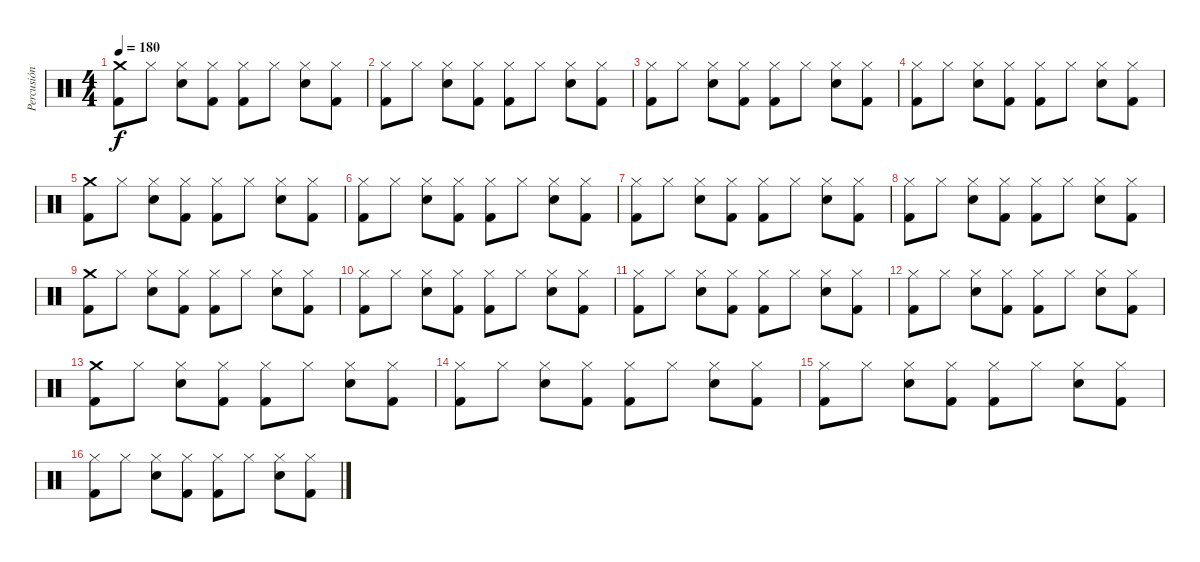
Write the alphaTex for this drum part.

\track ("Percusión" "Percusión") {instrument percussion}
\staff {score}
\articulation defaults
\ts (4 4)
\tempo 180
\clef neutral
\ks c
("Crash medium (hit)" "Kick (hit) 2").8{dy f} "Hi-Hat (closed)".8 ("Hi-Hat (closed)" "Electric Snare (hit)").8 ("Hi-Hat (closed)" "Kick (hit) 2").8 ("Hi-Hat (closed)" "Kick (hit) 2").8 "Hi-Hat (closed)".8 ("Hi-Hat (closed)" "Electric Snare (hit)").8 ("Hi-Hat (closed)" "Kick (hit) 2").8 |
("Hi-Hat (closed)" "Kick (hit) 2").8 "Hi-Hat (closed)".8 ("Hi-Hat (closed)" "Electric Snare (hit)").8 ("Hi-Hat (closed)" "Kick (hit) 2").8 ("Hi-Hat (closed)" "Kick (hit) 2").8 "Hi-Hat (closed)".8 ("Hi-Hat (closed)" "Electric Snare (hit)").8 ("Hi-Hat (closed)" "Kick (hit) 2").8 |
("Hi-Hat (closed)" "Kick (hit) 2").8 "Hi-Hat (closed)".8 ("Hi-Hat (closed)" "Electric Snare (hit)").8 ("Hi-Hat (closed)" "Kick (hit) 2").8 ("Hi-Hat (closed)" "Kick (hit) 2").8 "Hi-Hat (closed)".8 ("Hi-Hat (closed)" "Electric Snare (hit)").8 ("Hi-Hat (closed)" "Kick (hit) 2").8 |
("Hi-Hat (closed)" "Kick (hit) 2").8 "Hi-Hat (closed)".8 ("Hi-Hat (closed)" "Electric Snare (hit)").8 ("Hi-Hat (closed)" "Kick (hit) 2").8 ("Hi-Hat (closed)" "Kick (hit) 2").8 "Hi-Hat (closed)".8 ("Hi-Hat (closed)" "Electric Snare (hit)").8 ("Hi-Hat (closed)" "Kick (hit) 2").8 |
("Crash medium (hit)" "Kick (hit) 2").8 "Hi-Hat (closed)".8 ("Hi-Hat (closed)" "Electric Snare (hit)").8 ("Hi-Hat (closed)" "Kick (hit) 2").8 ("Hi-Hat (closed)" "Kick (hit) 2").8 "Hi-Hat (closed)".8 ("Hi-Hat (closed)" "Electric Snare (hit)").8 ("Hi-Hat (closed)" "Kick (hit) 2").8 |
("Hi-Hat (closed)" "Kick (hit) 2").8 "Hi-Hat (closed)".8 ("Hi-Hat (closed)" "Electric Snare (hit)").8 ("Hi-Hat (closed)" "Kick (hit) 2").8 ("Hi-Hat (closed)" "Kick (hit) 2").8 "Hi-Hat (closed)".8 ("Hi-Hat (closed)" "Electric Snare (hit)").8 ("Hi-Hat (closed)" "Kick (hit) 2").8 |
("Hi-Hat (closed)" "Kick (hit) 2").8 "Hi-Hat (closed)".8 ("Hi-Hat (closed)" "Electric Snare (hit)").8 ("Hi-Hat (closed)" "Kick (hit) 2").8 ("Hi-Hat (closed)" "Kick (hit) 2").8 "Hi-Hat (closed)".8 ("Hi-Hat (closed)" "Electric Snare (hit)").8 ("Hi-Hat (closed)" "Kick (hit) 2").8 |
("Hi-Hat (closed)" "Kick (hit) 2").8 "Hi-Hat (closed)".8 ("Hi-Hat (closed)" "Electric Snare (hit)").8 ("Hi-Hat (closed)" "Kick (hit) 2").8 ("Hi-Hat (closed)" "Kick (hit) 2").8 "Hi-Hat (closed)".8 ("Hi-Hat (closed)" "Electric Snare (hit)").8 ("Hi-Hat (closed)" "Kick (hit) 2").8 |
("Crash medium (hit)" "Kick (hit) 2").8 "Hi-Hat (closed)".8 ("Hi-Hat (closed)" "Electric Snare (hit)").8 ("Hi-Hat (closed)" "Kick (hit) 2").8 ("Hi-Hat (closed)" "Kick (hit) 2").8 "Hi-Hat (closed)".8 ("Hi-Hat (closed)" "Electric Snare (hit)").8 ("Hi-Hat (closed)" "Kick (hit) 2").8 |
("Hi-Hat (closed)" "Kick (hit) 2").8 "Hi-Hat (closed)".8 ("Hi-Hat (closed)" "Electric Snare (hit)").8 ("Hi-Hat (closed)" "Kick (hit) 2").8 ("Hi-Hat (closed)" "Kick (hit) 2").8 "Hi-Hat (closed)".8 ("Hi-Hat (closed)" "Electric Snare (hit)").8 ("Hi-Hat (closed)" "Kick (hit) 2").8 |
("Hi-Hat (closed)" "Kick (hit) 2").8 "Hi-Hat (closed)".8 ("Hi-Hat (closed)" "Electric Snare (hit)").8 ("Hi-Hat (closed)" "Kick (hit) 2").8 ("Hi-Hat (closed)" "Kick (hit) 2").8 "Hi-Hat (closed)".8 ("Hi-Hat (closed)" "Electric Snare (hit)").8 ("Hi-Hat (closed)" "Kick (hit) 2").8 |
("Hi-Hat (closed)" "Kick (hit) 2").8 "Hi-Hat (closed)".8 ("Hi-Hat (closed)" "Electric Snare (hit)").8 ("Hi-Hat (closed)" "Kick (hit) 2").8 ("Hi-Hat (closed)" "Kick (hit) 2").8 "Hi-Hat (closed)".8 ("Hi-Hat (closed)" "Electric Snare (hit)").8 ("Hi-Hat (closed)" "Kick (hit) 2").8 |
("Crash medium (hit)" "Kick (hit) 2").8 "Hi-Hat (closed)".8 ("Hi-Hat (closed)" "Electric Snare (hit)").8 ("Hi-Hat (closed)" "Kick (hit) 2").8 ("Hi-Hat (closed)" "Kick (hit) 2").8 "Hi-Hat (closed)".8 ("Hi-Hat (closed)" "Electric Snare (hit)").8 ("Hi-Hat (closed)" "Kick (hit) 2").8 |
("Hi-Hat (closed)" "Kick (hit) 2").8 "Hi-Hat (closed)".8 ("Hi-Hat (closed)" "Electric Snare (hit)").8 ("Hi-Hat (closed)" "Kick (hit) 2").8 ("Hi-Hat (closed)" "Kick (hit) 2").8 "Hi-Hat (closed)".8 ("Hi-Hat (closed)" "Electric Snare (hit)").8 ("Hi-Hat (closed)" "Kick (hit) 2").8 |
("Hi-Hat (closed)" "Kick (hit) 2").8 "Hi-Hat (closed)".8 ("Hi-Hat (closed)" "Electric Snare (hit)").8 ("Hi-Hat (closed)" "Kick (hit) 2").8 ("Hi-Hat (closed)" "Kick (hit) 2").8 "Hi-Hat (closed)".8 ("Hi-Hat (closed)" "Electric Snare (hit)").8 ("Hi-Hat (closed)" "Kick (hit) 2").8 |
("Hi-Hat (closed)" "Kick (hit) 2").8 "Hi-Hat (closed)".8 ("Hi-Hat (closed)" "Electric Snare (hit)").8 ("Hi-Hat (closed)" "Kick (hit) 2").8 ("Hi-Hat (closed)" "Kick (hit) 2").8 "Hi-Hat (closed)".8 ("Hi-Hat (closed)" "Electric Snare (hit)").8 ("Hi-Hat (closed)" "Kick (hit) 2").8
